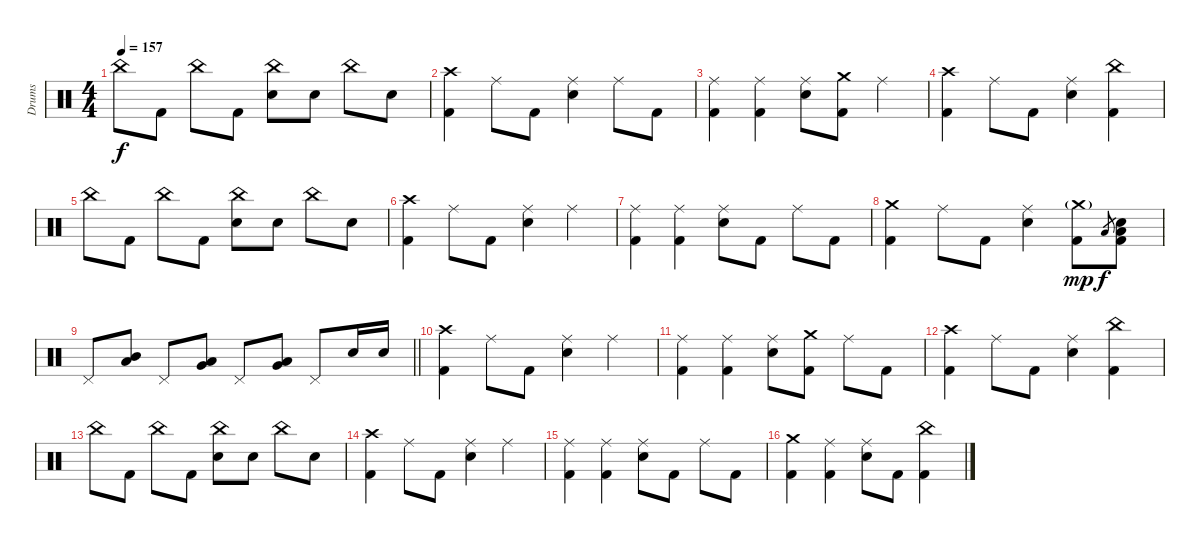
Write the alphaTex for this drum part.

\track ("Drums" "Drums") {instrument percussion}
\staff {score}
\articulation defaults
\ts (4 4)
\tempo 157
\clef neutral
\ks c "China (hit)".8{dy f} "Kick (hit) 2".8 "China (hit)".8 "Kick (hit) 2".8
("China (hit)" "Electric Snare (hit)").8 "Electric Snare (hit)".8 "China (hit)".8 "Electric Snare (hit)".8 |
("Crash high (hit)" "Kick (hit) 2").4 "Ride (middle)".8 "Kick (hit) 2".8 ("Ride (middle)" "Electric Snare (hit)").4 "Ride (middle)".8 "Kick (hit) 2".8 |
("Ride (middle)" "Kick (hit) 2").4 ("Ride (middle)" "Kick (hit) 2").4 ("Ride (middle)" "Electric Snare (hit)").8 ("Crash medium (hit)" "Kick (hit) 2").8 "Ride (middle)".4 |
("Crash high (hit)" "Kick (hit) 2").4 "Ride (middle)".8 "Kick (hit) 2".8 ("Ride (middle)" "Electric Snare (hit)").4 ("China (hit)" "Kick (hit) 2").4 |
"China (hit)".8 "Kick (hit) 2".8 "China (hit)".8 "Kick (hit) 2".8 ("China (hit)" "Electric Snare (hit)").8 "Electric Snare (hit)".8 "China (hit)".8 "Electric Snare (hit)".8 |
("Crash high (hit)" "Kick (hit) 2").4 "Ride (middle)".8 "Kick (hit) 2".8 ("Ride (middle)" "Electric Snare (hit)").4 "Ride (middle)".4 |
("Ride (middle)" "Kick (hit) 2").4 ("Ride (middle)" "Kick (hit) 2").4 ("Ride (middle)" "Electric Snare (hit)").8 "Kick (hit) 2".8 "Ride (middle)".8 "Kick (hit) 2".8 |
("Crash medium (hit)" "Kick (hit) 2").4 "Ride (middle)".8 "Kick (hit) 2".8 ("Ride (middle)" "Electric Snare (hit)").4 ("Crash medium (hit)"{g} "Kick (hit) 2").8{dy mp} "Low Tom (hit)".8{gr dy f} ("Low Tom (hit)" "Electric Snare (hit)" "Kick (hit) 2").8 |
\barLineRight lightlight "Pedal Hi-Hat (hit)".8
("Mid Tom (hit)" "Low Tom (hit)").8 "Pedal Hi-Hat (hit)".8 ("Low Tom (hit)" "Very Low Tom (hit)").8 "Pedal Hi-Hat (hit)".8 ("Very Low Tom (hit)" "Low Floor Tom (hit)").8 "Pedal Hi-Hat (hit)".8 "Electric Snare (hit)".16 "Electric Snare (hit)".16 |
\section ("" "")
("Crash high (hit)" "Kick (hit) 2").4 "Ride (middle)".8 "Kick (hit) 2".8 ("Ride (middle)" "Electric Snare (hit)").4 "Ride (middle)".4 |
("Ride (middle)" "Kick (hit) 2").4 ("Ride (middle)" "Kick (hit) 2").4 ("Ride (middle)" "Electric Snare (hit)").8 ("Crash medium (hit)" "Kick (hit) 2").8 "Ride (middle)".8 "Kick (hit) 2".8 |
("Crash high (hit)" "Kick (hit) 2").4 "Ride (middle)".8 "Kick (hit) 2".8 ("Ride (middle)" "Electric Snare (hit)").4 ("China (hit)" "Kick (hit) 2").4 |
"China (hit)".8 "Kick (hit) 2".8 "China (hit)".8 "Kick (hit) 2".8 ("China (hit)" "Electric Snare (hit)").8 "Electric Snare (hit)".8 "China (hit)".8 "Electric Snare (hit)".8 |
("Crash high (hit)" "Kick (hit) 2").4 "Ride (middle)".8 "Kick (hit) 2".8 ("Ride (middle)" "Electric Snare (hit)").4 "Ride (middle)".4 |
("Ride (middle)" "Kick (hit) 2").4 ("Ride (middle)" "Kick (hit) 2").4 ("Ride (middle)" "Electric Snare (hit)").8 "Kick (hit) 2".8 "Ride (middle)".8 "Kick (hit) 2".8 |
("Crash medium (hit)" "Kick (hit) 2").4 ("Ride (middle)" "Kick (hit) 2").4 ("Ride (middle)" "Electric Snare (hit)").8 "Kick (hit) 2".8 ("China (hit)" "Kick (hit) 2").4
